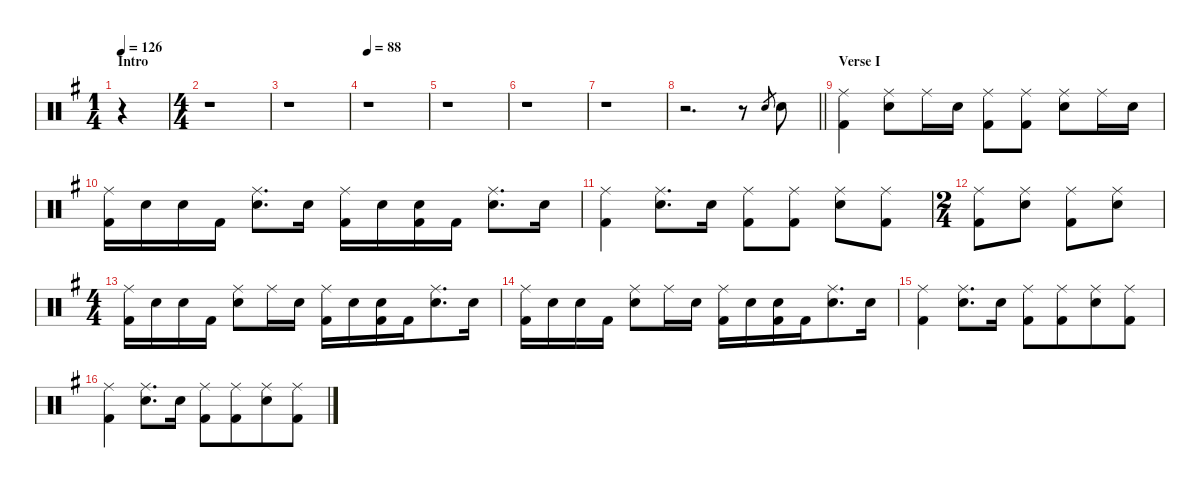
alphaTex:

\defaultSystemsLayout 4
\hideDynamics
\bracketExtendMode nobrackets
\singleTrackTrackNamePolicy hidden
\multiTrackTrackNamePolicy hidden
\firstSystemTrackNameMode fullname
\firstSystemTrackNameOrientation horizontal
\otherSystemsTrackNameOrientation horizontal
\track ("Drums" "drm.") {instrument percussion}
\staff {score}
\articulation defaults
\voice
\ts (1 4)
\beaming (8 2)
\section ("" "Intro")
\tempo 126
\clef neutral
\ks g
r.4{dy mf beam Up} |
\ts (4 4)
\beaming (8 2 2 2 2)
r.1{beam Down} |
r.1{beam Down} |
\tempo 88
r.1{beam Down} |
r.1{beam Down} |
r.1{beam Down} |
r.1{beam Down} |
\barLineRight lightlight
r.2{d beam Down} r.8{beam Down} "Snare (hit) 2"{acc forcenatural}.8{gr beam Up} "Snare (hit) 2"{acc forcenatural}.8{dy f beam Down} |
\section ("" "Verse I")
("Ride (middle)"{acc forcenatural} "Kick (hit) 2"{acc forcenatural}).4{beam Down} ("Ride (middle)"{acc forcenatural} "Snare (hit) 2"{acc forcenatural}).8{beam Down} "Ride (middle)"{acc forcenatural}.16{beam Down} "Snare (hit) 2"{acc forcenatural}.16{beam Down} ("Ride (middle)"{acc forcenatural} "Kick (hit) 2"{acc forcenatural}).8{beam Down} ("Ride (middle)"{acc forcenatural} "Kick (hit) 2"{acc forcenatural}).8{beam Down} ("Ride (middle)"{acc forcenatural} "Snare (hit) 2"{acc forcenatural}).8{beam Down} "Ride (middle)"{acc forcenatural}.16{beam Down} "Snare (hit) 2"{acc forcenatural}.16{beam Down} |
("Ride (middle)"{acc forcenatural} "Kick (hit) 2"{acc forcenatural}).16{beam Down} "Snare (hit) 2"{acc forcenatural}.16{beam Down} "Snare (hit) 2"{acc forcenatural}.16{beam Down} "Kick (hit) 2"{acc forcenatural}.16{beam Down} ("Ride (middle)"{acc forcenatural} "Snare (hit) 2"{acc forcenatural}).8{d beam Down} "Snare (hit) 2"{acc forcenatural}.16{beam Down} ("Ride (middle)"{acc forcenatural} "Kick (hit) 2"{acc forcenatural}).16{beam Down} "Snare (hit) 2"{acc forcenatural}.16{beam Down} ("Snare (hit) 2"{acc forcenatural} "Kick (hit) 2"{acc forcenatural}).16{beam Down} "Kick (hit) 2"{acc forcenatural}.16{beam Down} ("Ride (middle)"{acc forcenatural} "Snare (hit) 2"{acc forcenatural}).8{d beam Down} "Snare (hit) 2"{acc forcenatural}.16{beam Down} |
("Ride (middle)"{acc forcenatural} "Kick (hit) 2"{acc forcenatural}).4{beam Down} ("Ride (middle)"{acc forcenatural} "Snare (hit) 2"{acc forcenatural}).8{d beam Down} "Snare (hit) 2"{acc forcenatural}.16{beam Down} ("Ride (middle)"{acc forcenatural} "Kick (hit) 2"{acc forcenatural}).8{beam Down} ("Ride (middle)"{acc forcenatural} "Kick (hit) 2"{acc forcenatural}).8{beam Down} ("Ride (middle)"{acc forcenatural} "Snare (hit) 2"{acc forcenatural}).8{beam Down} ("Ride (middle)"{acc forcenatural} "Kick (hit) 2"{acc forcenatural}).8{beam Down} |
\ts (2 4)
\beaming (8 2 2)
("Ride (middle)"{acc forcenatural} "Kick (hit) 2"{acc forcenatural}).8{beam Down} ("Ride (middle)"{acc forcenatural} "Snare (hit) 2"{acc forcenatural}).8{beam Down} ("Ride (middle)"{acc forcenatural} "Kick (hit) 2"{acc forcenatural}).8{beam Down} ("Ride (middle)"{acc forcenatural} "Snare (hit) 2"{acc forcenatural}).8{beam Down} |
\ts (4 4)
\beaming (8 2 2 4)
("Ride (middle)"{acc forcenatural} "Kick (hit) 2"{acc forcenatural}).16{beam Down} "Snare (hit) 2"{acc forcenatural}.16{beam Down} "Snare (hit) 2"{acc forcenatural}.16{beam Down} "Kick (hit) 2"{acc forcenatural}.16{beam Down} ("Ride (middle)"{acc forcenatural} "Snare (hit) 2"{acc forcenatural}).8{beam Down} "Ride (middle)"{acc forcenatural}.16{beam Down} "Snare (hit) 2"{acc forcenatural}.16{beam Down} ("Ride (middle)"{acc forcenatural} "Kick (hit) 2"{acc forcenatural}).16{beam Down} "Snare (hit) 2"{acc forcenatural}.16{beam Down} ("Snare (hit) 2"{acc forcenatural} "Kick (hit) 2"{acc forcenatural}).16{beam Down} "Kick (hit) 2"{acc forcenatural}.16{beam Down} ("Ride (middle)"{acc forcenatural} "Snare (hit) 2"{acc forcenatural}).8{d beam Down} "Snare (hit) 2"{acc forcenatural}.16{beam Down} |
("Ride (middle)"{acc forcenatural} "Kick (hit) 2"{acc forcenatural}).16{beam Down} "Snare (hit) 2"{acc forcenatural}.16{beam Down} "Snare (hit) 2"{acc forcenatural}.16{beam Down} "Kick (hit) 2"{acc forcenatural}.16{beam Down} ("Ride (middle)"{acc forcenatural} "Snare (hit) 2"{acc forcenatural}).8{beam Down} "Ride (middle)"{acc forcenatural}.16{beam Down} "Snare (hit) 2"{acc forcenatural}.16{beam Down} ("Ride (middle)"{acc forcenatural} "Kick (hit) 2"{acc forcenatural}).16{beam Down} "Snare (hit) 2"{acc forcenatural}.16{beam Down} ("Snare (hit) 2"{acc forcenatural} "Kick (hit) 2"{acc forcenatural}).16{beam Down} "Kick (hit) 2"{acc forcenatural}.16{beam Down} ("Ride (middle)"{acc forcenatural} "Snare (hit) 2"{acc forcenatural}).8{d beam Down} "Snare (hit) 2"{acc forcenatural}.16{beam Down} |
("Ride (middle)"{acc forcenatural} "Kick (hit) 2"{acc forcenatural}).4{beam Down} ("Ride (middle)"{acc forcenatural} "Snare (hit) 2"{acc forcenatural}).8{d beam Down} "Snare (hit) 2"{acc forcenatural}.16{beam Down} ("Ride (middle)"{acc forcenatural} "Kick (hit) 2"{acc forcenatural}).8{beam Down} ("Ride (middle)"{acc forcenatural} "Kick (hit) 2"{acc forcenatural}).8{beam Down} ("Ride (middle)"{acc forcenatural} "Snare (hit) 2"{acc forcenatural}).8{beam Down} ("Ride (middle)"{acc forcenatural} "Kick (hit) 2"{acc forcenatural}).8{beam Down} |
("Ride (middle)"{acc forcenatural} "Kick (hit) 2"{acc forcenatural}).4{beam Down} ("Ride (middle)"{acc forcenatural} "Snare (hit) 2"{acc forcenatural}).8{d beam Down} "Snare (hit) 2"{acc forcenatural}.16{beam Down} ("Ride (middle)"{acc forcenatural} "Kick (hit) 2"{acc forcenatural}).8{beam Down} ("Ride (middle)"{acc forcenatural} "Kick (hit) 2"{acc forcenatural}).8{beam Down} ("Ride (middle)"{acc forcenatural} "Snare (hit) 2"{acc forcenatural}).8{beam Down} ("Ride (middle)"{acc forcenatural} "Kick (hit) 2"{acc forcenatural}).8{beam Down}
\voice
\clef neutral
\ottava regular
\simile none
\ks g
r.4{dy mf beam Down} |
|
|
|
|
|
|
\barLineRight lightlight
|
|
|
|
|
|
|
|
